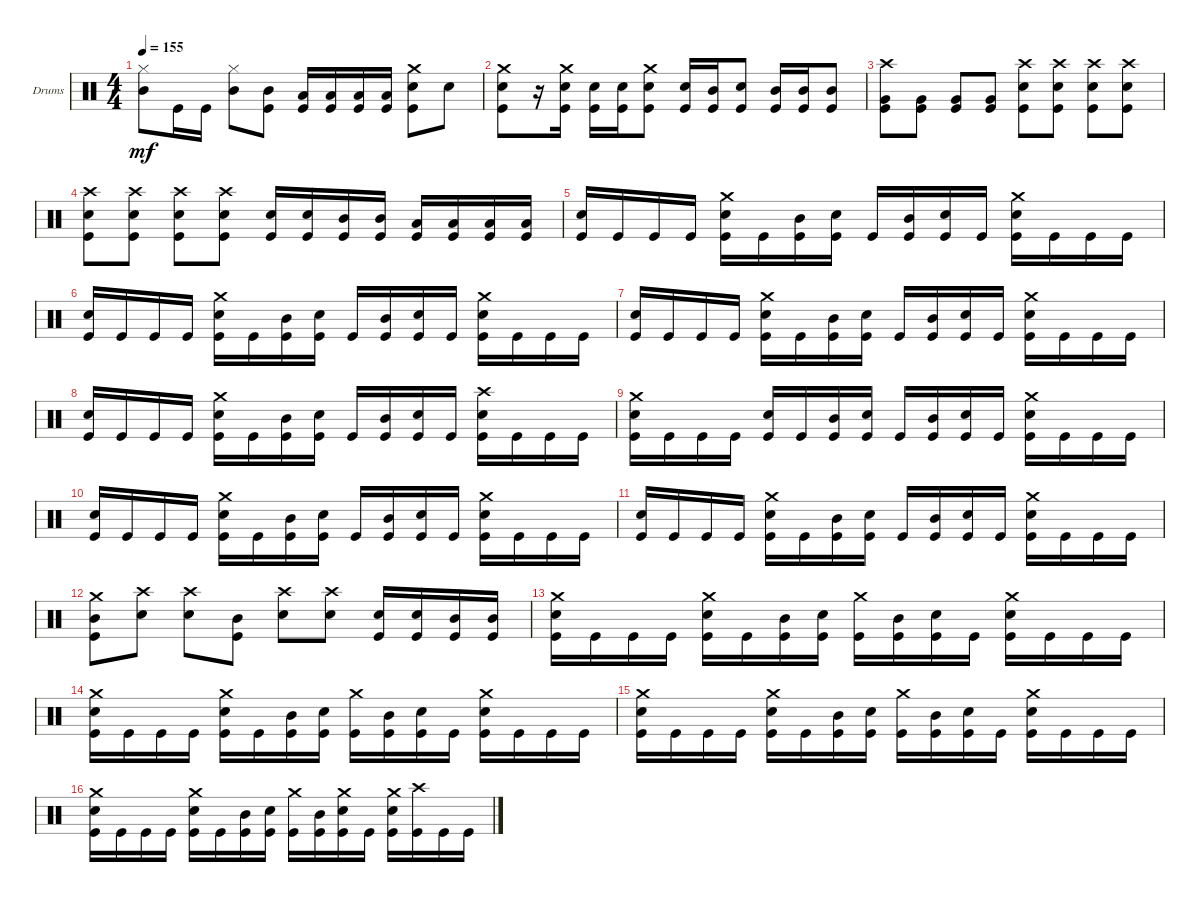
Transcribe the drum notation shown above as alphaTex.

\defaultSystemsLayout 4
\bracketExtendMode groupsimilarinstruments
\firstSystemTrackNameOrientation horizontal
\otherSystemsTrackNameOrientation horizontal
\track ("Drumkit" "Drums") {instrument percussion}
\staff {score}
\articulation defaults
\ts (4 4)
\tempo 155
\clef neutral
\ks c
("Mid Tom (hit)" "Hi-Hat (closed)").8{dy mf} "Kick (hit)".16 "Kick (hit)".16 ("Mid Tom (hit)" "Hi-Hat (closed)").8 ("Kick (hit)" "Mid Tom (hit)").8 ("Kick (hit)" "Low Tom (hit)").16 ("Kick (hit)" "Low Tom (hit)").16 ("Kick (hit)" "Low Tom (hit)").16 ("Kick (hit)" "Low Tom (hit)").16 ("Kick (hit)" "Snare (hit) 2" "Crash medium (hit)").8 "Snare (hit) 2".8 |
("Kick (hit)" "Snare (hit) 2" "Crash medium (hit)").8 r.16 ("Kick (hit)" "Snare (hit) 2" "Crash medium (hit)").16 ("Kick (hit)" "Snare (hit) 2").16 ("Kick (hit)" "Snare (hit) 2").16 ("Kick (hit)" "Snare (hit) 2" "Crash medium (hit)").8 ("Kick (hit)" "Snare (hit) 2").16 ("Kick (hit)" "Mid Tom (hit)").16 ("Kick (hit)" "Snare (hit) 2").8 ("Kick (hit)" "Mid Tom (hit)").16 ("Kick (hit)" "Mid Tom (hit)").16 ("Kick (hit)" "Mid Tom (hit)").8 |
("Kick (hit)" "Very Low Tom (hit)" "Crash high (hit)").8 ("Kick (hit)" "Very Low Tom (hit)").8 ("Kick (hit)" "Very Low Tom (hit)").8 ("Kick (hit)" "Very Low Tom (hit)").8 ("Kick (hit)" "Snare (hit) 2" "Crash high (hit)").8 ("Kick (hit)" "Snare (hit) 2" "Crash high (hit)").8 ("Kick (hit)" "Snare (hit) 2" "Crash high (hit)").8 ("Kick (hit)" "Snare (hit) 2" "Crash high (hit)").8 |
("Kick (hit)" "Snare (hit) 2" "Crash high (hit)").8 ("Kick (hit)" "Snare (hit) 2" "Crash high (hit)").8 ("Kick (hit)" "Snare (hit) 2" "Crash high (hit)").8 ("Kick (hit)" "Snare (hit) 2" "Crash high (hit)").8 ("Kick (hit)" "Snare (hit) 2").16 ("Kick (hit)" "Snare (hit) 2").16 ("Kick (hit)" "Mid Tom (hit)").16 ("Kick (hit)" "Mid Tom (hit)").16 ("Kick (hit)" "Low Tom (hit)").16 ("Kick (hit)" "Low Tom (hit)").16 ("Kick (hit)" "Low Tom (hit)").16 ("Kick (hit)" "Low Tom (hit)").16 |
("Kick (hit)" "Snare (hit) 2").16 "Kick (hit)".16 "Kick (hit)".16 "Kick (hit)".16 ("Kick (hit)" "Snare (hit) 2" "Crash medium (hit)").16 "Kick (hit)".16 ("Kick (hit)" "Mid Tom (hit)").16 ("Kick (hit)" "Snare (hit) 2").16 "Kick (hit)".16 ("Kick (hit)" "Mid Tom (hit)").16 ("Kick (hit)" "Snare (hit) 2").16 "Kick (hit)".16 ("Kick (hit)" "Snare (hit) 2" "Crash medium (hit)").16 "Kick (hit)".16 "Kick (hit)".16 "Kick (hit)".16 |
("Kick (hit)" "Snare (hit) 2").16 "Kick (hit)".16 "Kick (hit)".16 "Kick (hit)".16 ("Kick (hit)" "Snare (hit) 2" "Crash medium (hit)").16 "Kick (hit)".16 ("Kick (hit)" "Mid Tom (hit)").16 ("Kick (hit)" "Snare (hit) 2").16 "Kick (hit)".16 ("Kick (hit)" "Mid Tom (hit)").16 ("Kick (hit)" "Snare (hit) 2").16 "Kick (hit)".16 ("Kick (hit)" "Snare (hit) 2" "Crash medium (hit)").16 "Kick (hit)".16 "Kick (hit)".16 "Kick (hit)".16 |
("Kick (hit)" "Snare (hit) 2").16 "Kick (hit)".16 "Kick (hit)".16 "Kick (hit)".16 ("Kick (hit)" "Snare (hit) 2" "Crash medium (hit)").16 "Kick (hit)".16 ("Kick (hit)" "Mid Tom (hit)").16 ("Kick (hit)" "Snare (hit) 2").16 "Kick (hit)".16 ("Kick (hit)" "Mid Tom (hit)").16 ("Kick (hit)" "Snare (hit) 2").16 "Kick (hit)".16 ("Kick (hit)" "Snare (hit) 2" "Crash medium (hit)").16 "Kick (hit)".16 "Kick (hit)".16 "Kick (hit)".16 |
("Kick (hit)" "Snare (hit) 2").16 "Kick (hit)".16 "Kick (hit)".16 "Kick (hit)".16 ("Kick (hit)" "Snare (hit) 2" "Crash medium (hit)").16 "Kick (hit)".16 ("Kick (hit)" "Mid Tom (hit)").16 ("Kick (hit)" "Snare (hit) 2").16 "Kick (hit)".16 ("Kick (hit)" "Mid Tom (hit)").16 ("Kick (hit)" "Snare (hit) 2").16 "Kick (hit)".16 ("Kick (hit)" "Snare (hit) 2" "Crash high (hit)").16 "Kick (hit)".16 "Kick (hit)".16 "Kick (hit)".16 |
("Kick (hit)" "Snare (hit) 2" "Crash medium (hit)").16 "Kick (hit)".16 "Kick (hit)".16 "Kick (hit)".16 ("Kick (hit)" "Snare (hit) 2").16 "Kick (hit)".16 ("Kick (hit)" "Mid Tom (hit)").16 ("Kick (hit)" "Snare (hit) 2").16 "Kick (hit)".16 ("Kick (hit)" "Mid Tom (hit)").16 ("Kick (hit)" "Snare (hit) 2").16 "Kick (hit)".16 ("Kick (hit)" "Snare (hit) 2" "Crash medium (hit)").16 "Kick (hit)".16 "Kick (hit)".16 "Kick (hit)".16 |
("Kick (hit)" "Snare (hit) 2").16 "Kick (hit)".16 "Kick (hit)".16 "Kick (hit)".16 ("Kick (hit)" "Snare (hit) 2" "Crash medium (hit)").16 "Kick (hit)".16 ("Kick (hit)" "Mid Tom (hit)").16 ("Kick (hit)" "Snare (hit) 2").16 "Kick (hit)".16 ("Kick (hit)" "Mid Tom (hit)").16 ("Kick (hit)" "Snare (hit) 2").16 "Kick (hit)".16 ("Kick (hit)" "Snare (hit) 2" "Crash medium (hit)").16 "Kick (hit)".16 "Kick (hit)".16 "Kick (hit)".16 |
("Kick (hit)" "Snare (hit) 2").16 "Kick (hit)".16 "Kick (hit)".16 "Kick (hit)".16 ("Kick (hit)" "Snare (hit) 2" "Crash medium (hit)").16 "Kick (hit)".16 ("Kick (hit)" "Mid Tom (hit)").16 ("Kick (hit)" "Snare (hit) 2").16 "Kick (hit)".16 ("Kick (hit)" "Mid Tom (hit)").16 ("Kick (hit)" "Snare (hit) 2").16 "Kick (hit)".16 ("Kick (hit)" "Snare (hit) 2" "Crash medium (hit)").16 "Kick (hit)".16 "Kick (hit)".16 "Kick (hit)".16 |
("Kick (hit)" "Mid Tom (hit)" "Crash medium (hit)").8 ("Snare (hit) 2" "Crash high (hit)").8 ("Snare (hit) 2" "Crash high (hit)").8 ("Kick (hit)" "Mid Tom (hit)").8 ("Snare (hit) 2" "Crash high (hit)").8 ("Snare (hit) 2" "Crash high (hit)").8 ("Kick (hit)" "Snare (hit) 2").16 ("Kick (hit)" "Snare (hit) 2").16 ("Kick (hit)" "Mid Tom (hit)").16 ("Kick (hit)" "Mid Tom (hit)").16 |
("Kick (hit)" "Snare (hit) 2" "Crash medium (hit)").16 "Kick (hit)".16 "Kick (hit)".16 "Kick (hit)".16 ("Kick (hit)" "Snare (hit) 2" "Crash medium (hit)").16 "Kick (hit)".16 ("Kick (hit)" "Mid Tom (hit)").16 ("Kick (hit)" "Snare (hit) 2").16 ("Kick (hit)" "Crash medium (hit)").16 ("Kick (hit)" "Mid Tom (hit)").16 ("Kick (hit)" "Snare (hit) 2").16 "Kick (hit)".16 ("Kick (hit)" "Snare (hit) 2" "Crash medium (hit)").16 "Kick (hit)".16 "Kick (hit)".16 "Kick (hit)".16 |
("Kick (hit)" "Snare (hit) 2" "Crash medium (hit)").16 "Kick (hit)".16 "Kick (hit)".16 "Kick (hit)".16 ("Kick (hit)" "Snare (hit) 2" "Crash medium (hit)").16 "Kick (hit)".16 ("Kick (hit)" "Mid Tom (hit)").16 ("Kick (hit)" "Snare (hit) 2").16 ("Kick (hit)" "Crash medium (hit)").16 ("Kick (hit)" "Mid Tom (hit)").16 ("Kick (hit)" "Snare (hit) 2").16 "Kick (hit)".16 ("Kick (hit)" "Snare (hit) 2" "Crash medium (hit)").16 "Kick (hit)".16 "Kick (hit)".16 "Kick (hit)".16 |
("Kick (hit)" "Snare (hit) 2" "Crash medium (hit)").16 "Kick (hit)".16 "Kick (hit)".16 "Kick (hit)".16 ("Kick (hit)" "Snare (hit) 2" "Crash medium (hit)").16 "Kick (hit)".16 ("Kick (hit)" "Mid Tom (hit)").16 ("Kick (hit)" "Snare (hit) 2").16 ("Kick (hit)" "Crash medium (hit)").16 ("Kick (hit)" "Mid Tom (hit)").16 ("Kick (hit)" "Snare (hit) 2").16 "Kick (hit)".16 ("Kick (hit)" "Snare (hit) 2" "Crash medium (hit)").16 "Kick (hit)".16 "Kick (hit)".16 "Kick (hit)".16 |
("Kick (hit)" "Snare (hit) 2" "Crash medium (hit)").16 "Kick (hit)".16 "Kick (hit)".16 "Kick (hit)".16 ("Kick (hit)" "Snare (hit) 2" "Crash medium (hit)").16 "Kick (hit)".16 ("Kick (hit)" "Mid Tom (hit)").16 ("Kick (hit)" "Snare (hit) 2").16 ("Kick (hit)" "Crash medium (hit)").16 ("Kick (hit)" "Mid Tom (hit)").16 ("Kick (hit)" "Snare (hit) 2" "Crash medium (hit)").16 "Kick (hit)".16 ("Kick (hit)" "Snare (hit) 2" "Crash medium (hit)").16 ("Kick (hit)" "Crash high (hit)").16 "Kick (hit)".16 "Kick (hit)".16
